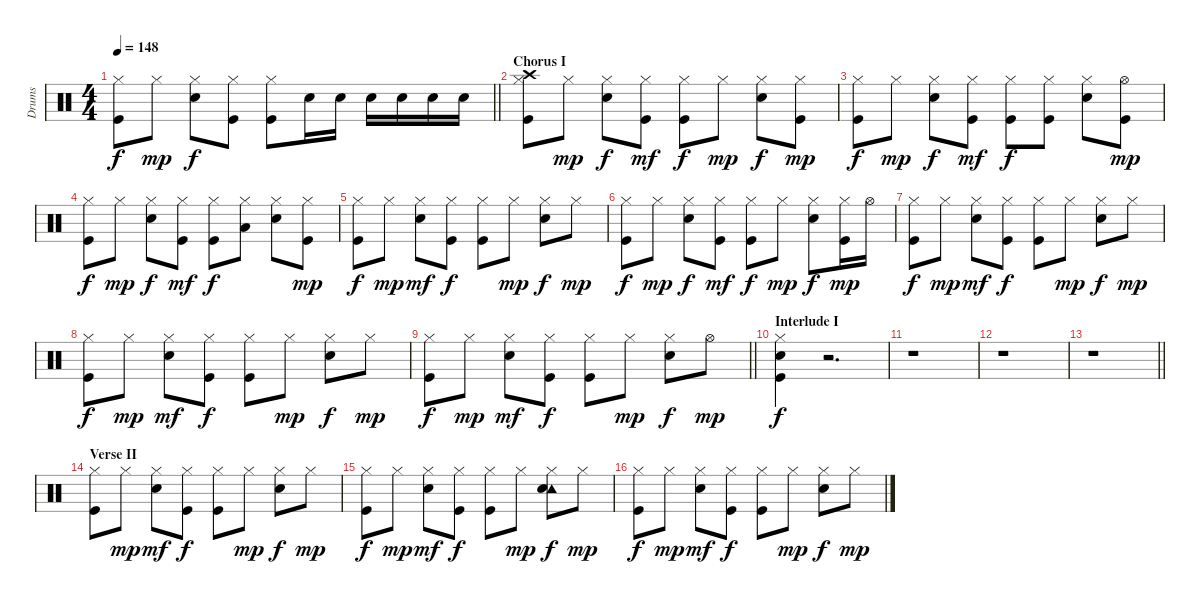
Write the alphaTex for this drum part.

\track ("Drums   " "Drums   ") {instrument percussion}
\staff {score}
\articulation defaults
\ts (4 4)
\tempo 148
\clef neutral
\barLineRight lightlight
\ks c
("Hi-Hat (closed)" "Kick (hit)").8{dy f} "Hi-Hat (closed)".8{dy mp} ("Hi-Hat (closed)" "Snare (hit) 2").8{dy f} ("Hi-Hat (closed)" "Kick (hit)").8 ("Hi-Hat (closed)" "Kick (hit)").8 "Snare (hit) 2".16 "Snare (hit) 2".16 "Snare (hit) 2".16 "Snare (hit) 2".16 "Snare (hit) 2".16 "Snare (hit) 2".16 |
\section ("" "Chorus I")
("Hi-Hat (closed)" "Crash high (hit)" "Kick (hit)").8 "Hi-Hat (closed)".8{dy mp} ("Hi-Hat (closed)" "Snare (hit) 2").8{dy f} ("Hi-Hat (closed)" "Kick (hit)").8{dy mf} ("Hi-Hat (closed)" "Kick (hit)").8{dy f} "Hi-Hat (closed)".8{dy mp} ("Hi-Hat (closed)" "Snare (hit) 2").8{dy f} ("Hi-Hat (closed)" "Kick (hit)").8{dy mp} |
("Hi-Hat (closed)" "Kick (hit)").8{dy f} "Hi-Hat (closed)".8{dy mp} ("Hi-Hat (closed)" "Snare (hit) 2").8{dy f} ("Hi-Hat (closed)" "Kick (hit)").8{dy mf} ("Hi-Hat (closed)" "Kick (hit)").8{dy f} ("Hi-Hat (closed)" "Kick (hit)").8 ("Hi-Hat (closed)" "Snare (hit) 2").8 ("Hi-Hat (open)" "Kick (hit)").8{dy mp} |
("Hi-Hat (closed)" "Kick (hit)").8{dy f} "Hi-Hat (closed)".8{dy mp} ("Hi-Hat (closed)" "Snare (hit) 2").8{dy f} ("Hi-Hat (closed)" "Kick (hit)").8{dy mf} ("Hi-Hat (closed)" "Kick (hit)").8{dy f} ("Hi-Hat (closed)" "Low Floor Tom (hit)").8 ("Hi-Hat (closed)" "Snare (hit) 2").8 ("Hi-Hat (closed)" "Kick (hit)").8{dy mp} |
("Hi-Hat (closed)" "Kick (hit)").8{dy f} "Hi-Hat (closed)".8{dy mp} ("Hi-Hat (closed)" "Snare (hit) 2").8{dy mf} ("Hi-Hat (closed)" "Kick (hit)").8{dy f} ("Hi-Hat (closed)" "Kick (hit)").8 "Hi-Hat (closed)".8{dy mp} ("Hi-Hat (closed)" "Snare (hit) 2").8{dy f} "Hi-Hat (closed)".8{dy mp} |
("Hi-Hat (closed)" "Kick (hit)").8{dy f} "Hi-Hat (closed)".8{dy mp} ("Hi-Hat (closed)" "Snare (hit) 2").8{dy f} ("Hi-Hat (closed)" "Kick (hit)").8{dy mf} ("Hi-Hat (closed)" "Kick (hit)").8{dy f} "Hi-Hat (closed)".8{dy mp} ("Hi-Hat (closed)" "Snare (hit) 2").8{dy f} ("Hi-Hat (closed)" "Kick (hit)").16{dy mp} "Hi-Hat (open)".16 |
("Hi-Hat (closed)" "Kick (hit)").8{dy f} "Hi-Hat (closed)".8{dy mp} ("Hi-Hat (closed)" "Snare (hit) 2").8{dy mf} ("Hi-Hat (closed)" "Kick (hit)").8{dy f} ("Hi-Hat (closed)" "Kick (hit)").8 "Hi-Hat (closed)".8{dy mp} ("Hi-Hat (closed)" "Snare (hit) 2").8{dy f} "Hi-Hat (closed)".8{dy mp} |
("Hi-Hat (closed)" "Kick (hit)").8{dy f} "Hi-Hat (closed)".8{dy mp} ("Hi-Hat (closed)" "Snare (hit) 2").8{dy mf} ("Hi-Hat (closed)" "Kick (hit)").8{dy f} ("Hi-Hat (closed)" "Kick (hit)").8 "Hi-Hat (closed)".8{dy mp} ("Hi-Hat (closed)" "Snare (hit) 2").8{dy f} "Hi-Hat (closed)".8{dy mp} |
\barLineRight lightlight
("Hi-Hat (closed)" "Kick (hit)").8{dy f} "Hi-Hat (closed)".8{dy mp} ("Hi-Hat (closed)" "Snare (hit) 2").8{dy mf} ("Hi-Hat (closed)" "Kick (hit)").8{dy f} ("Hi-Hat (closed)" "Kick (hit)").8 "Hi-Hat (closed)".8{dy mp} ("Hi-Hat (closed)" "Snare (hit) 2").8{dy f} "Hi-Hat (open)".8{dy mp} |
\section ("" "Interlude I")
("Hi-Hat (closed)" "Snare (hit) 2" "Kick (hit)").4{dy f} r.2{d} |
r.1 |
r.1 |
\barLineRight lightlight
r.1 |
\section ("" "Verse II")
("Hi-Hat (closed)" "Kick (hit)").8 "Hi-Hat (closed)".8{dy mp} ("Hi-Hat (closed)" "Snare (hit) 2").8{dy mf} ("Hi-Hat (closed)" "Kick (hit)").8{dy f} ("Hi-Hat (closed)" "Kick (hit)").8 "Hi-Hat (closed)".8{dy mp} ("Hi-Hat (closed)" "Snare (hit) 2").8{dy f} "Hi-Hat (closed)".8{dy mp} |
("Hi-Hat (closed)" "Kick (hit)").8{dy f} "Hi-Hat (closed)".8{dy mp} ("Hi-Hat (closed)" "Snare (hit) 2").8{dy mf} ("Hi-Hat (closed)" "Kick (hit)").8{dy f} ("Hi-Hat (closed)" "Kick (hit)").8 "Hi-Hat (closed)".8{dy mp} ("Hi-Hat (closed)" "Tambourine (hit)" "Snare (hit) 2").8{dy f} "Hi-Hat (closed)".8{dy mp} |
("Hi-Hat (closed)" "Kick (hit)").8{dy f} "Hi-Hat (closed)".8{dy mp} ("Hi-Hat (closed)" "Snare (hit) 2").8{dy mf} ("Hi-Hat (closed)" "Kick (hit)").8{dy f} ("Hi-Hat (closed)" "Kick (hit)").8 "Hi-Hat (closed)".8{dy mp} ("Hi-Hat (closed)" "Snare (hit) 2").8{dy f} "Hi-Hat (closed)".8{dy mp}
